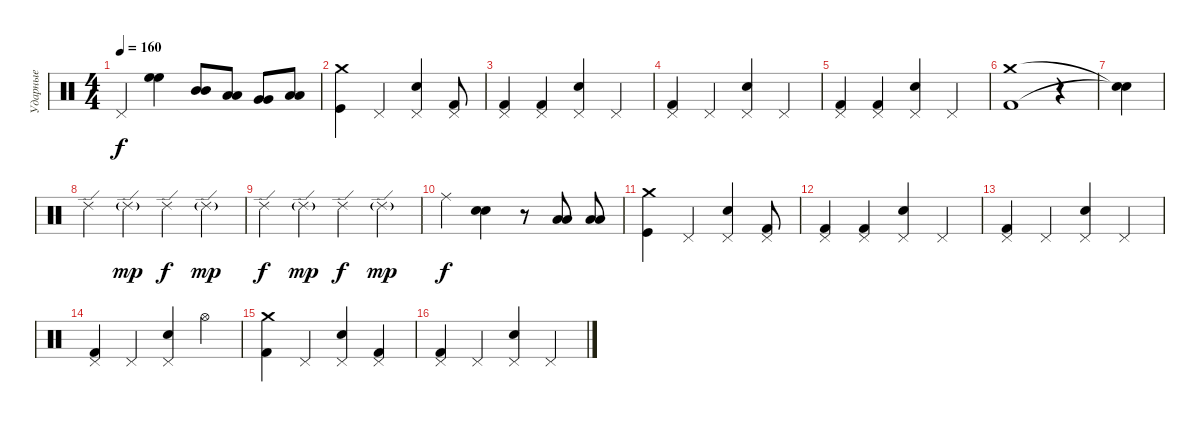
\track ("Ударные" "Ударные") {instrument percussion}
\staff {score}
\articulation defaults
\ts (4 4)
\tempo 160
\clef neutral
\ks c "Pedal Hi-Hat (hit)".4{dy f}
("High Floor Tom (hit)" "High Floor Tom (hit)").4 ("Mid Tom (hit)" "Mid Tom (hit)").8 ("Low Tom (hit)" "Low Tom (hit)").8 ("Very Low Tom (hit)" "Very Low Tom (hit)").8 ("Low Floor Tom (hit)" "Low Floor Tom (hit)").8 |
("Crash medium (hit)" "Kick (hit)").4 "Pedal Hi-Hat (hit)".4 ("Pedal Hi-Hat (hit)" "Snare (hit) 2").4 ("Pedal Hi-Hat (hit)" "Kick (hit) 2").8 |
("Pedal Hi-Hat (hit)" "Kick (hit) 2").4 ("Pedal Hi-Hat (hit)" "Kick (hit) 2").4 ("Pedal Hi-Hat (hit)" "Snare (hit) 2").4 "Pedal Hi-Hat (hit)".4 |
("Pedal Hi-Hat (hit)" "Kick (hit) 2").4 "Pedal Hi-Hat (hit)".4 ("Pedal Hi-Hat (hit)" "Snare (hit) 2").4 "Pedal Hi-Hat (hit)".4 |
("Pedal Hi-Hat (hit)" "Kick (hit) 2").4 ("Pedal Hi-Hat (hit)" "Kick (hit) 2").4 ("Pedal Hi-Hat (hit)" "Snare (hit) 2").4 "Pedal Hi-Hat (hit)".4 |
("Crash medium (hit)" "Kick (hit) 2").1 r.4 |
("Snare (hit)"{t} "Snare (hit)"{t}).4 |
"Ride (edge) 2".4 "Ride (edge) 2"{g}.4{dy mp} "Ride (edge) 2".4{dy f} "Ride (edge) 2"{g}.4{dy mp} |
"Ride (edge) 2".4{dy f} "Ride (edge) 2"{g}.4{dy mp} "Ride (edge) 2".4{dy f} "Ride (edge) 2"{g}.4{dy mp} |
"Ride (middle)".4{dy f} ("Snare (hit) 2" "Snare (hit) 2").4 r.8 ("Low Tom (hit)" "Low Tom (hit)").8 ("Low Tom (hit)" "Low Tom (hit)").8 |
("Crash medium (hit)" "Kick (hit)").4 "Pedal Hi-Hat (hit)".4 ("Pedal Hi-Hat (hit)" "Snare (hit) 2").4 ("Pedal Hi-Hat (hit)" "Kick (hit) 2").8 |
("Pedal Hi-Hat (hit)" "Kick (hit) 2").4 ("Pedal Hi-Hat (hit)" "Kick (hit) 2").4 ("Pedal Hi-Hat (hit)" "Snare (hit) 2").4 "Pedal Hi-Hat (hit)".4 |
("Pedal Hi-Hat (hit)" "Kick (hit) 2").4 "Pedal Hi-Hat (hit)".4 ("Pedal Hi-Hat (hit)" "Snare (hit) 2").4 "Pedal Hi-Hat (hit)".4 |
("Pedal Hi-Hat (hit)" "Kick (hit) 2").4 "Pedal Hi-Hat (hit)".4 ("Pedal Hi-Hat (hit)" "Snare (hit) 2").4 "Hi-Hat (open)".4 |
("Crash medium (hit)" "Kick (hit) 2").4 "Pedal Hi-Hat (hit)".4 ("Pedal Hi-Hat (hit)" "Snare (hit) 2").4 ("Pedal Hi-Hat (hit)" "Kick (hit) 2").4 |
("Pedal Hi-Hat (hit)" "Kick (hit) 2").4 "Pedal Hi-Hat (hit)".4 ("Pedal Hi-Hat (hit)" "Snare (hit) 2").4 "Pedal Hi-Hat (hit)".4
